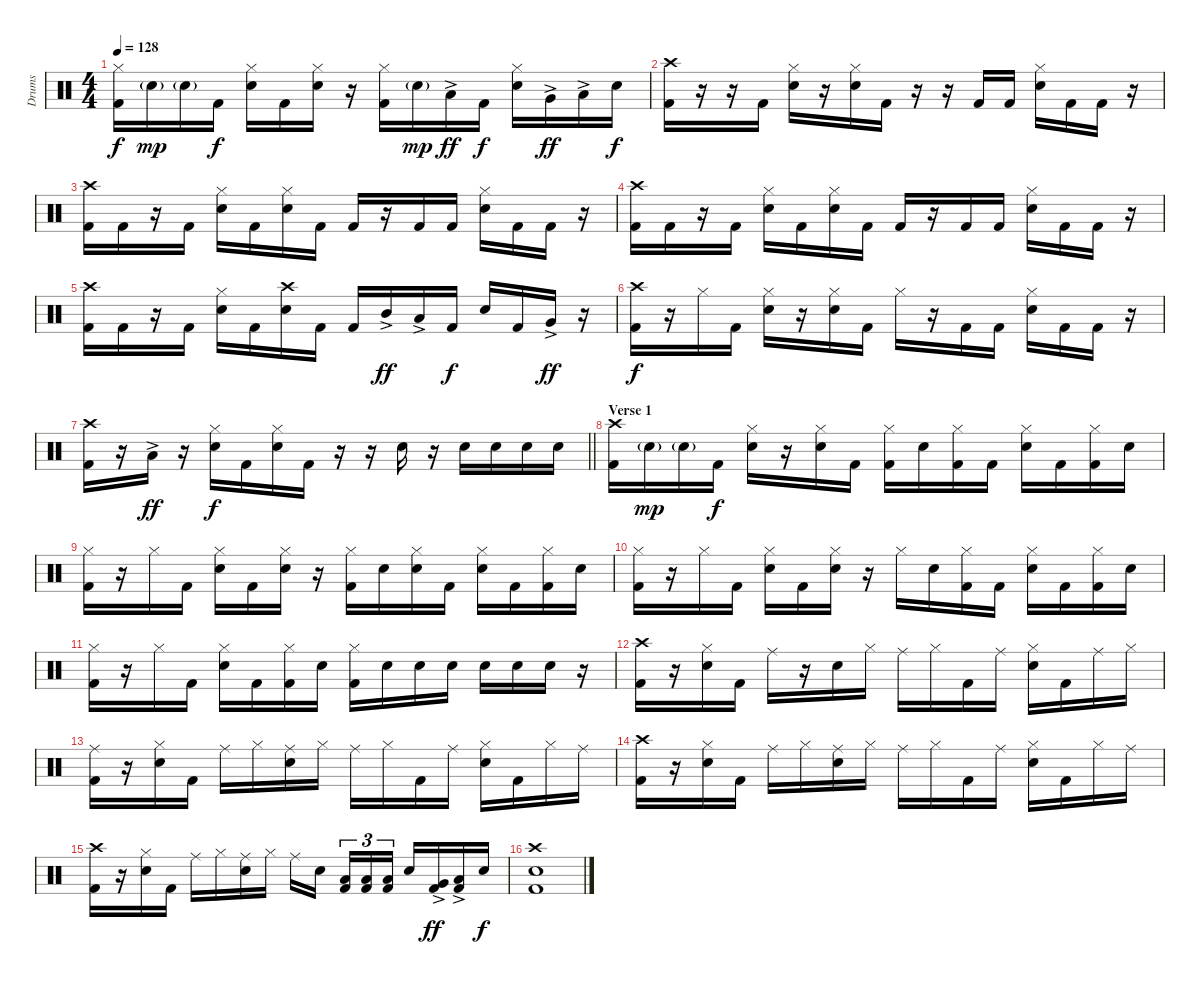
\track ("Drums" "Drums") {instrument percussion}
\staff {score}
\articulation defaults
\ts (4 4)
\tempo 128
\clef neutral
\ks c
("Hi-Hat (closed)" "Kick (hit) 2").16{dy f} "Electric Snare (hit)"{g}.16{dy mp} "Electric Snare (hit)"{g}.16 "Kick (hit) 2".16{dy f} ("Hi-Hat (closed)" "Electric Snare (hit)").16 "Kick (hit) 2".16 ("Hi-Hat (closed)" "Electric Snare (hit)").16 r.16 ("Hi-Hat (closed)" "Kick (hit) 2").16 "Electric Snare (hit)"{g}.16{dy mp} "Low Tom (hit)"{ac}.16{dy ff} "Kick (hit) 2".16{dy f} ("Hi-Hat (closed)" "Electric Snare (hit)").16 "Very Low Tom (hit)"{ac}.16{dy ff} "Low Tom (hit)"{ac}.16 "Electric Snare (hit)".16{dy f} |
("Crash high (hit)" "Kick (hit) 2").16 r.16 r.16 "Kick (hit) 2".16 ("Hi-Hat (closed)" "Electric Snare (hit)").16 r.16 ("Hi-Hat (closed)" "Electric Snare (hit)").16 "Kick (hit) 2".16 r.16 r.16 "Kick (hit) 2".16 "Kick (hit) 2".16 ("Hi-Hat (closed)" "Electric Snare (hit)").16 "Kick (hit) 2".16 "Kick (hit) 2".16 r.16 |
("Crash high (hit)" "Kick (hit) 2").16 "Kick (hit) 2".16 r.16 "Kick (hit) 2".16 ("Hi-Hat (closed)" "Electric Snare (hit)").16 "Kick (hit) 2".16 ("Hi-Hat (closed)" "Electric Snare (hit)").16 "Kick (hit) 2".16 "Kick (hit) 2".16 r.16 "Kick (hit) 2".16 "Kick (hit) 2".16 ("Hi-Hat (closed)" "Electric Snare (hit)").16 "Kick (hit) 2".16 "Kick (hit) 2".16 r.16 |
("Crash high (hit)" "Kick (hit) 2").16 "Kick (hit) 2".16 r.16 "Kick (hit) 2".16 ("Hi-Hat (closed)" "Electric Snare (hit)").16 "Kick (hit) 2".16 ("Hi-Hat (closed)" "Electric Snare (hit)").16 "Kick (hit) 2".16 "Kick (hit) 2".16 r.16 "Kick (hit) 2".16 "Kick (hit) 2".16 ("Hi-Hat (closed)" "Electric Snare (hit)").16 "Kick (hit) 2".16 "Kick (hit) 2".16 r.16 |
("Crash high (hit)" "Kick (hit) 2").16 "Kick (hit) 2".16 r.16 "Kick (hit) 2".16 ("Hi-Hat (closed)" "Electric Snare (hit)").16 "Kick (hit) 2".16 ("Crash high (hit)" "Electric Snare (hit)").16 "Kick (hit) 2".16 "Kick (hit) 2".16 "Mid Tom (hit)"{ac}.16{dy ff} "Low Tom (hit)"{ac}.16 "Kick (hit) 2".16{dy f} "Electric Snare (hit)".16 "Kick (hit) 2".16 "Very Low Tom (hit)"{ac}.16{dy ff} r.16 |
("Crash high (hit)" "Kick (hit) 2").16{dy f} r.16 "Hi-Hat (closed)".16 "Kick (hit) 2".16 ("Hi-Hat (closed)" "Electric Snare (hit)").16 r.16 ("Hi-Hat (closed)" "Electric Snare (hit)").16 "Kick (hit) 2".16 "Hi-Hat (closed)".16 r.16 "Kick (hit) 2".16 "Kick (hit) 2".16 ("Hi-Hat (closed)" "Electric Snare (hit)").16 "Kick (hit) 2".16 "Kick (hit) 2".16 r.16 |
\barLineRight lightlight
("Crash high (hit)" "Kick (hit) 2").16 r.16 "Low Tom (hit)"{ac}.16{dy ff} r.16 ("Hi-Hat (closed)" "Electric Snare (hit)").16{dy f} "Kick (hit) 2".16 ("Hi-Hat (closed)" "Electric Snare (hit)").16 "Kick (hit) 2".16 r.16 r.16 "Electric Snare (hit)".16 r.16 "Electric Snare (hit)".16 "Electric Snare (hit)".16 "Electric Snare (hit)".16 "Electric Snare (hit)".16 |
\section ("" "Verse 1")
("Crash high (hit)" "Kick (hit) 2").16 "Electric Snare (hit)"{g}.16{dy mp} "Electric Snare (hit)"{g}.16 "Kick (hit) 2".16{dy f} ("Hi-Hat (closed)" "Electric Snare (hit)").16 r.16 ("Hi-Hat (closed)" "Electric Snare (hit)").16 "Kick (hit) 2".16 ("Hi-Hat (closed)" "Kick (hit) 2").16 "Electric Snare (hit)".16 ("Hi-Hat (closed)" "Kick (hit) 2").16 "Kick (hit) 2".16 ("Hi-Hat (closed)" "Electric Snare (hit)").16 "Kick (hit) 2".16 ("Hi-Hat (closed)" "Kick (hit) 2").16 "Electric Snare (hit)".16 |
("Hi-Hat (closed)" "Kick (hit) 2").16 r.16 "Hi-Hat (closed)".16 "Kick (hit) 2".16 ("Hi-Hat (closed)" "Electric Snare (hit)").16 "Kick (hit) 2".16 ("Hi-Hat (closed)" "Electric Snare (hit)").16 r.16 ("Hi-Hat (closed)" "Kick (hit) 2").16 "Electric Snare (hit)".16 ("Hi-Hat (closed)" "Electric Snare (hit)").16 "Kick (hit) 2".16 ("Hi-Hat (closed)" "Electric Snare (hit)").16 "Kick (hit) 2".16 ("Hi-Hat (closed)" "Kick (hit) 2").16 "Electric Snare (hit)".16 |
("Hi-Hat (closed)" "Kick (hit) 2").16 r.16 "Hi-Hat (closed)".16 "Kick (hit) 2".16 ("Hi-Hat (closed)" "Electric Snare (hit)").16 "Kick (hit) 2".16 ("Hi-Hat (closed)" "Electric Snare (hit)").16 r.16 "Hi-Hat (closed)".16 "Electric Snare (hit)".16 ("Hi-Hat (closed)" "Kick (hit) 2").16 "Kick (hit) 2".16 ("Hi-Hat (closed)" "Electric Snare (hit)").16 "Kick (hit) 2".16 ("Hi-Hat (closed)" "Kick (hit) 2").16 "Electric Snare (hit)".16 |
("Hi-Hat (closed)" "Kick (hit) 2").16 r.16 "Hi-Hat (closed)".16 "Kick (hit) 2".16 ("Hi-Hat (closed)" "Electric Snare (hit)").16 "Kick (hit) 2".16 ("Hi-Hat (closed)" "Kick (hit) 2").16 "Electric Snare (hit)".16 ("Hi-Hat (closed)" "Kick (hit) 2").16 "Electric Snare (hit)".16 "Electric Snare (hit)".16 "Electric Snare (hit)".16 "Electric Snare (hit)".16 "Electric Snare (hit)".16 "Electric Snare (hit)".16 r.16 |
("Crash high (hit)" "Kick (hit) 2").16 r.16 ("Hi-Hat (closed)" "Electric Snare (hit)").16 "Kick (hit) 2".16 "Ride (middle)".16 r.16 "Electric Snare (hit)".16 "Hi-Hat (closed)".16 "Ride (middle)".16 "Hi-Hat (closed)".16 "Kick (hit) 2".16 "Ride (middle)".16 ("Hi-Hat (closed)" "Electric Snare (hit)").16 "Kick (hit) 2".16 "Ride (middle)".16 "Hi-Hat (closed)".16 |
("Ride (middle)" "Kick (hit) 2").16 r.16 ("Hi-Hat (closed)" "Electric Snare (hit)").16 "Kick (hit) 2".16 "Ride (middle)".16 "Hi-Hat (closed)".16 ("Ride (middle)" "Electric Snare (hit)").16 "Hi-Hat (closed)".16 "Ride (middle)".16 "Hi-Hat (closed)".16 "Kick (hit) 2".16 "Ride (middle)".16 ("Hi-Hat (closed)" "Electric Snare (hit)").16 "Kick (hit) 2".16 "Hi-Hat (closed)".16 "Ride (middle)".16 |
("Crash high (hit)" "Kick (hit) 2").16 r.16 ("Hi-Hat (closed)" "Electric Snare (hit)").16 "Kick (hit) 2".16 "Ride (middle)".16 "Hi-Hat (closed)".16 ("Ride (middle)" "Electric Snare (hit)").16 "Hi-Hat (closed)".16 "Ride (middle)".16 "Hi-Hat (closed)".16 "Kick (hit) 2".16 "Ride (middle)".16 ("Hi-Hat (closed)" "Electric Snare (hit)").16 "Kick (hit) 2".16 "Hi-Hat (closed)".16 "Ride (middle)".16 |
("Crash high (hit)" "Kick (hit) 2").16 r.16 ("Hi-Hat (closed)" "Electric Snare (hit)").16 "Kick (hit) 2".16 "Ride (middle)".16 "Hi-Hat (closed)".16 ("Ride (middle)" "Electric Snare (hit)").16 "Hi-Hat (closed)".16 "Ride (middle)".16 "Electric Snare (hit)".16 ("Low Tom (hit)" "Kick (hit) 2").16{tu (3 2)} ("Low Tom (hit)" "Kick (hit) 2").16{tu (3 2)} ("Low Tom (hit)" "Kick (hit) 2").16{tu (3 2)} "Electric Snare (hit)".16 ("Very Low Tom (hit)"{ac} "Kick (hit) 2").16{dy ff} ("Low Floor Tom (hit)"{ac} "Kick (hit) 2").16 "Electric Snare (hit)".16{dy f} |
("Crash high (hit)" "Electric Snare (hit)" "Kick (hit) 2").1
